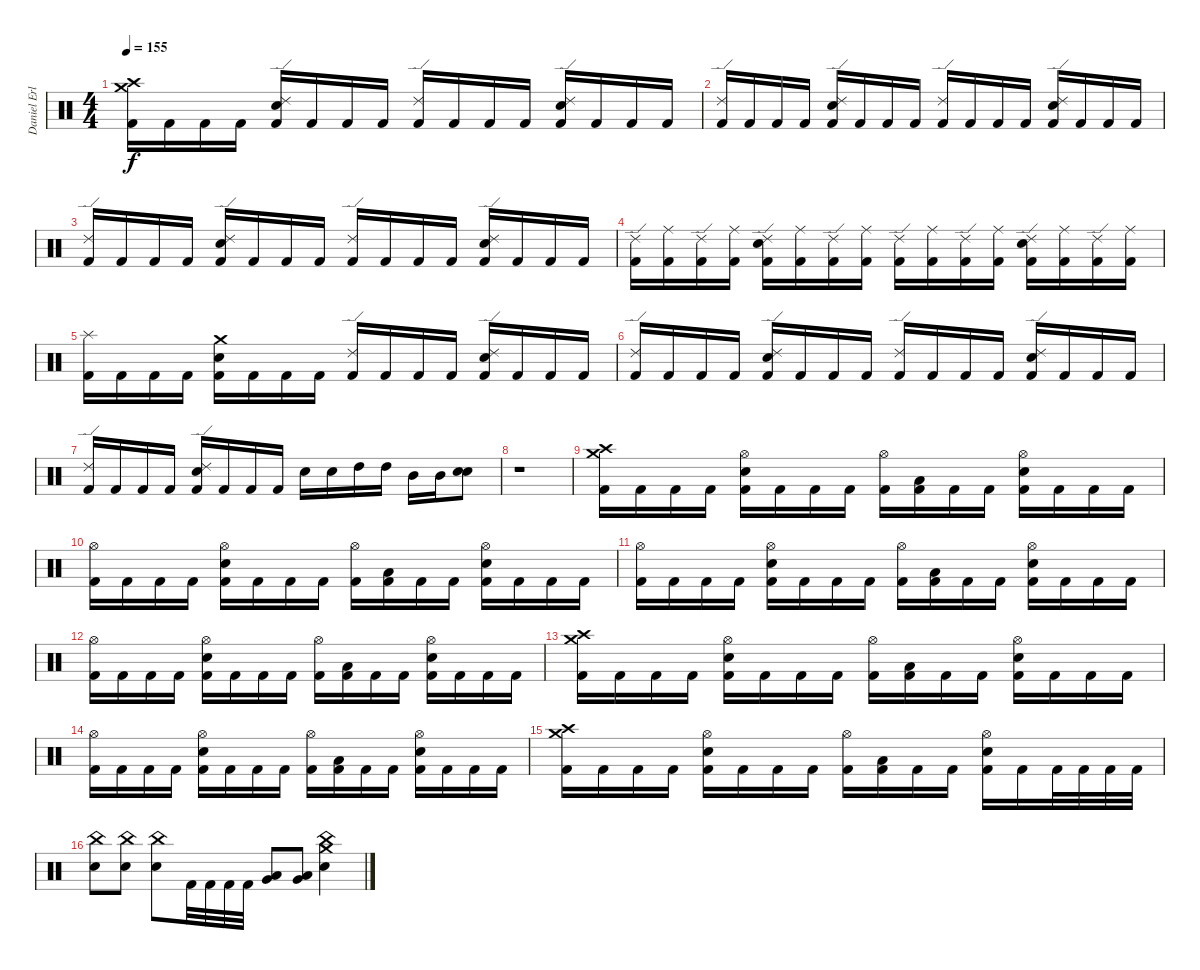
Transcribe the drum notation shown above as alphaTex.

\track ("Daniel Erlandsson" "Daniel Erl") {instrument percussion}
\staff {score}
\articulation defaults
\ts (4 4)
\tempo 155
\clef neutral
\ks c
("Crash high (hit)" "Crash medium (hit)" "Kick (hit) 2").16{dy f} "Kick (hit) 2".16 "Kick (hit) 2".16 "Kick (hit) 2".16 ("Ride (edge) 2" "Snare (hit) 2" "Kick (hit) 2").16 "Kick (hit) 2".16 "Kick (hit) 2".16 "Kick (hit) 2".16 ("Ride (edge) 2" "Kick (hit) 2").16 "Kick (hit) 2".16 "Kick (hit) 2".16 "Kick (hit) 2".16 ("Ride (edge) 2" "Snare (hit) 2" "Kick (hit) 2").16 "Kick (hit) 2".16 "Kick (hit) 2".16 "Kick (hit) 2".16 |
("Ride (edge) 2" "Kick (hit) 2").16 "Kick (hit) 2".16 "Kick (hit) 2".16 "Kick (hit) 2".16 ("Ride (edge) 2" "Snare (hit) 2" "Kick (hit) 2").16 "Kick (hit) 2".16 "Kick (hit) 2".16 "Kick (hit) 2".16 ("Ride (edge) 2" "Kick (hit) 2").16 "Kick (hit) 2".16 "Kick (hit) 2".16 "Kick (hit) 2".16 ("Ride (edge) 2" "Snare (hit) 2" "Kick (hit) 2").16 "Kick (hit) 2".16 "Kick (hit) 2".16 "Kick (hit) 2".16 |
("Ride (edge) 2" "Kick (hit) 2").16 "Kick (hit) 2".16 "Kick (hit) 2".16 "Kick (hit) 2".16 ("Ride (edge) 2" "Snare (hit) 2" "Kick (hit) 2").16 "Kick (hit) 2".16 "Kick (hit) 2".16 "Kick (hit) 2".16 ("Ride (edge) 2" "Kick (hit) 2").16 "Kick (hit) 2".16 "Kick (hit) 2".16 "Kick (hit) 2".16 ("Ride (edge) 2" "Snare (hit) 2" "Kick (hit) 2").16 "Kick (hit) 2".16 "Kick (hit) 2".16 "Kick (hit) 2".16 |
("Ride (edge) 2" "Kick (hit) 2").16 ("Ride (middle)" "Kick (hit) 2").16 ("Ride (edge) 2" "Kick (hit) 2").16 ("Ride (middle)" "Kick (hit) 2").16 ("Ride (edge) 2" "Snare (hit) 2" "Kick (hit) 2").16 ("Ride (middle)" "Kick (hit) 2").16 ("Ride (edge) 2" "Kick (hit) 2").16 ("Ride (middle)" "Kick (hit) 2").16 ("Ride (edge) 2" "Kick (hit) 2").16 ("Ride (middle)" "Kick (hit) 2").16 ("Ride (edge) 2" "Kick (hit) 2").16 ("Ride (middle)" "Kick (hit) 2").16 ("Ride (edge) 2" "Snare (hit) 2" "Kick (hit) 2").16 ("Ride (middle)" "Kick (hit) 2").16 ("Ride (edge) 2" "Kick (hit) 2").16 ("Ride (middle)" "Kick (hit) 2").16 |
("Splash (hit)" "Kick (hit) 2").16 "Kick (hit) 2".16 "Kick (hit) 2".16 "Kick (hit) 2".16 ("Crash medium (hit)" "Snare (hit) 2" "Kick (hit) 2").16 "Kick (hit) 2".16 "Kick (hit) 2".16 "Kick (hit) 2".16 ("Ride (edge) 2" "Kick (hit) 2").16 "Kick (hit) 2".16 "Kick (hit) 2".16 "Kick (hit) 2".16 ("Ride (edge) 2" "Snare (hit) 2" "Kick (hit) 2").16 "Kick (hit) 2".16 "Kick (hit) 2".16 "Kick (hit) 2".16 |
("Ride (edge) 2" "Kick (hit) 2").16 "Kick (hit) 2".16 "Kick (hit) 2".16 "Kick (hit) 2".16 ("Ride (edge) 2" "Snare (hit) 2" "Kick (hit) 2").16 "Kick (hit) 2".16 "Kick (hit) 2".16 "Kick (hit) 2".16 ("Ride (edge) 2" "Kick (hit) 2").16 "Kick (hit) 2".16 "Kick (hit) 2".16 "Kick (hit) 2".16 ("Ride (edge) 2" "Snare (hit) 2" "Kick (hit) 2").16 "Kick (hit) 2".16 "Kick (hit) 2".16 "Kick (hit) 2".16 |
("Ride (edge) 2" "Kick (hit) 2").16 "Kick (hit) 2".16 "Kick (hit) 2".16 "Kick (hit) 2".16 ("Ride (edge) 2" "Snare (hit) 2" "Kick (hit) 2").16 "Kick (hit) 2".16 "Kick (hit) 2".16 "Kick (hit) 2".16 "Snare (hit) 2".16 "Snare (hit) 2".16 "High Tom (hit)".16 "High Tom (hit)".16 "Mid Tom (hit)".16 "Mid Tom (hit)".16 ("Snare (hit) 2" "Snare (hit) 2").8{bu 480} |
r.1 |
("Crash high (hit)" "Crash medium (hit)" "Kick (hit) 2").16 "Kick (hit) 2".16 "Kick (hit) 2".16 "Kick (hit) 2".16 ("Hi-Hat (open)" "Snare (hit) 2" "Kick (hit) 2").16 "Kick (hit) 2".16 "Kick (hit) 2".16 "Kick (hit) 2".16 ("Hi-Hat (open)" "Kick (hit) 2").16 ("Low Tom (hit)" "Kick (hit) 2").16 "Kick (hit) 2".16 "Kick (hit) 2".16 ("Hi-Hat (open)" "Snare (hit) 2" "Kick (hit) 2").16 "Kick (hit) 2".16 "Kick (hit) 2".16 "Kick (hit) 2".16 |
("Hi-Hat (open)" "Kick (hit) 2").16 "Kick (hit) 2".16 "Kick (hit) 2".16 "Kick (hit) 2".16 ("Hi-Hat (open)" "Snare (hit) 2" "Kick (hit) 2").16 "Kick (hit) 2".16 "Kick (hit) 2".16 "Kick (hit) 2".16 ("Hi-Hat (open)" "Kick (hit) 2").16 ("Low Tom (hit)" "Kick (hit) 2").16 "Kick (hit) 2".16 "Kick (hit) 2".16 ("Hi-Hat (open)" "Snare (hit) 2" "Kick (hit) 2").16 "Kick (hit) 2".16 "Kick (hit) 2".16 "Kick (hit) 2".16 |
("Hi-Hat (open)" "Kick (hit) 2").16 "Kick (hit) 2".16 "Kick (hit) 2".16 "Kick (hit) 2".16 ("Hi-Hat (open)" "Snare (hit) 2" "Kick (hit) 2").16 "Kick (hit) 2".16 "Kick (hit) 2".16 "Kick (hit) 2".16 ("Hi-Hat (open)" "Kick (hit) 2").16 ("Low Tom (hit)" "Kick (hit) 2").16 "Kick (hit) 2".16 "Kick (hit) 2".16 ("Hi-Hat (open)" "Snare (hit) 2" "Kick (hit) 2").16 "Kick (hit) 2".16 "Kick (hit) 2".16 "Kick (hit) 2".16 |
("Hi-Hat (open)" "Kick (hit) 2").16 "Kick (hit) 2".16 "Kick (hit) 2".16 "Kick (hit) 2".16 ("Hi-Hat (open)" "Snare (hit) 2" "Kick (hit) 2").16 "Kick (hit) 2".16 "Kick (hit) 2".16 "Kick (hit) 2".16 ("Hi-Hat (open)" "Kick (hit) 2").16 ("Low Tom (hit)" "Kick (hit) 2").16 "Kick (hit) 2".16 "Kick (hit) 2".16 ("Hi-Hat (open)" "Snare (hit) 2" "Kick (hit) 2").16 "Kick (hit) 2".16 "Kick (hit) 2".16 "Kick (hit) 2".16 |
("Crash high (hit)" "Crash medium (hit)" "Kick (hit) 2").16 "Kick (hit) 2".16 "Kick (hit) 2".16 "Kick (hit) 2".16 ("Hi-Hat (open)" "Snare (hit) 2" "Kick (hit) 2").16 "Kick (hit) 2".16 "Kick (hit) 2".16 "Kick (hit) 2".16 ("Hi-Hat (open)" "Kick (hit) 2").16 ("Low Tom (hit)" "Kick (hit) 2").16 "Kick (hit) 2".16 "Kick (hit) 2".16 ("Hi-Hat (open)" "Snare (hit) 2" "Kick (hit) 2").16 "Kick (hit) 2".16 "Kick (hit) 2".16 "Kick (hit) 2".16 |
("Hi-Hat (open)" "Kick (hit) 2").16 "Kick (hit) 2".16 "Kick (hit) 2".16 "Kick (hit) 2".16 ("Hi-Hat (open)" "Snare (hit) 2" "Kick (hit) 2").16 "Kick (hit) 2".16 "Kick (hit) 2".16 "Kick (hit) 2".16 ("Hi-Hat (open)" "Kick (hit) 2").16 ("Low Tom (hit)" "Kick (hit) 2").16 "Kick (hit) 2".16 "Kick (hit) 2".16 ("Hi-Hat (open)" "Snare (hit) 2" "Kick (hit) 2").16 "Kick (hit) 2".16 "Kick (hit) 2".16 "Kick (hit) 2".16 |
("Crash high (hit)" "Crash medium (hit)" "Kick (hit) 2").16 "Kick (hit) 2".16 "Kick (hit) 2".16 "Kick (hit) 2".16 ("Hi-Hat (open)" "Snare (hit) 2" "Kick (hit) 2").16 "Kick (hit) 2".16 "Kick (hit) 2".16 "Kick (hit) 2".16 ("Hi-Hat (open)" "Kick (hit) 2").16 ("Low Tom (hit)" "Kick (hit) 2").16 "Kick (hit) 2".16 "Kick (hit) 2".16 ("Hi-Hat (open)" "Snare (hit) 2" "Kick (hit) 2").16 "Kick (hit) 2".16 "Kick (hit) 2".32 "Kick (hit) 2".32 "Kick (hit) 2".32 "Kick (hit) 2".32 |
("China (hit)" "Snare (hit) 2").8 ("China (hit)" "Snare (hit) 2").8 ("China (hit)" "Snare (hit) 2").8 "Kick (hit) 2".32 "Kick (hit) 2".32 "Kick (hit) 2".32 "Kick (hit) 2".32 ("Very Low Tom (hit)" "Low Tom (hit)").8 ("Very Low Tom (hit)" "Low Tom (hit)").8 ("Crash medium (hit)" "China (hit)" "Snare (hit) 2").4
